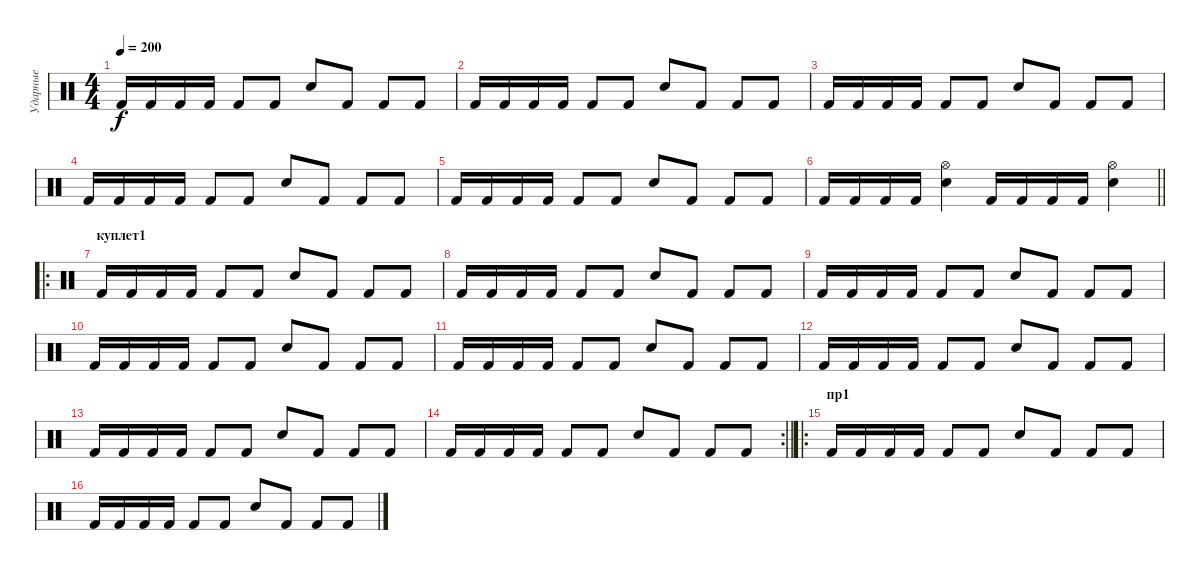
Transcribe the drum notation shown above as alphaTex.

\track ("Ударные" "Ударные") {instrument percussion}
\staff {score}
\articulation defaults
\ts (4 4)
\tempo 200
\clef neutral
\ks c "Kick (hit) 2".16{dy f} "Kick (hit) 2".16 "Kick (hit) 2".16 "Kick (hit) 2".16 "Kick (hit) 2".8 "Kick (hit) 2".8 "Snare (hit) 2".8 "Kick (hit) 2".8 "Kick (hit) 2".8 "Kick (hit) 2".8
|
"Kick (hit) 2".16 "Kick (hit) 2".16 "Kick (hit) 2".16 "Kick (hit) 2".16 "Kick (hit) 2".8 "Kick (hit) 2".8 "Snare (hit) 2".8 "Kick (hit) 2".8 "Kick (hit) 2".8 "Kick (hit) 2".8 |
"Kick (hit) 2".16 "Kick (hit) 2".16 "Kick (hit) 2".16 "Kick (hit) 2".16 "Kick (hit) 2".8 "Kick (hit) 2".8 "Snare (hit) 2".8 "Kick (hit) 2".8 "Kick (hit) 2".8 "Kick (hit) 2".8 |
"Kick (hit) 2".16 "Kick (hit) 2".16 "Kick (hit) 2".16 "Kick (hit) 2".16 "Kick (hit) 2".8 "Kick (hit) 2".8 "Snare (hit) 2".8 "Kick (hit) 2".8 "Kick (hit) 2".8 "Kick (hit) 2".8 |
"Kick (hit) 2".16 "Kick (hit) 2".16 "Kick (hit) 2".16 "Kick (hit) 2".16 "Kick (hit) 2".8 "Kick (hit) 2".8 "Snare (hit) 2".8 "Kick (hit) 2".8 "Kick (hit) 2".8 "Kick (hit) 2".8 |
\barLineRight lightlight "Kick (hit) 2".16 "Kick (hit) 2".16 "Kick (hit) 2".16 "Kick (hit) 2".16
("Hi-Hat (open)" "Snare (hit) 2").4 "Kick (hit) 2".16 "Kick (hit) 2".16 "Kick (hit) 2".16 "Kick (hit) 2".16 ("Hi-Hat (open)" "Snare (hit) 2").4 |
\ro
\section ("" "куплет1")
"Kick (hit) 2".16 "Kick (hit) 2".16 "Kick (hit) 2".16 "Kick (hit) 2".16 "Kick (hit) 2".8 "Kick (hit) 2".8 "Snare (hit) 2".8 "Kick (hit) 2".8 "Kick (hit) 2".8 "Kick (hit) 2".8 |
"Kick (hit) 2".16 "Kick (hit) 2".16 "Kick (hit) 2".16 "Kick (hit) 2".16 "Kick (hit) 2".8 "Kick (hit) 2".8 "Snare (hit) 2".8 "Kick (hit) 2".8 "Kick (hit) 2".8 "Kick (hit) 2".8 |
"Kick (hit) 2".16 "Kick (hit) 2".16 "Kick (hit) 2".16 "Kick (hit) 2".16 "Kick (hit) 2".8 "Kick (hit) 2".8 "Snare (hit) 2".8 "Kick (hit) 2".8 "Kick (hit) 2".8 "Kick (hit) 2".8 |
"Kick (hit) 2".16 "Kick (hit) 2".16 "Kick (hit) 2".16 "Kick (hit) 2".16 "Kick (hit) 2".8 "Kick (hit) 2".8 "Snare (hit) 2".8 "Kick (hit) 2".8 "Kick (hit) 2".8 "Kick (hit) 2".8 |
"Kick (hit) 2".16 "Kick (hit) 2".16 "Kick (hit) 2".16 "Kick (hit) 2".16 "Kick (hit) 2".8 "Kick (hit) 2".8 "Snare (hit) 2".8 "Kick (hit) 2".8 "Kick (hit) 2".8 "Kick (hit) 2".8 |
"Kick (hit) 2".16 "Kick (hit) 2".16 "Kick (hit) 2".16 "Kick (hit) 2".16 "Kick (hit) 2".8 "Kick (hit) 2".8 "Snare (hit) 2".8 "Kick (hit) 2".8 "Kick (hit) 2".8 "Kick (hit) 2".8 |
"Kick (hit) 2".16 "Kick (hit) 2".16 "Kick (hit) 2".16 "Kick (hit) 2".16 "Kick (hit) 2".8 "Kick (hit) 2".8 "Snare (hit) 2".8 "Kick (hit) 2".8 "Kick (hit) 2".8 "Kick (hit) 2".8 |
\rc 2
\barLineRight lightlight "Kick (hit) 2".16 "Kick (hit) 2".16 "Kick (hit) 2".16 "Kick (hit) 2".16 "Kick (hit) 2".8 "Kick (hit) 2".8 "Snare (hit) 2".8 "Kick (hit) 2".8 "Kick (hit) 2".8 "Kick (hit) 2".8
|
\ro
\section ("" "пр1")
"Kick (hit) 2".16 "Kick (hit) 2".16 "Kick (hit) 2".16 "Kick (hit) 2".16 "Kick (hit) 2".8 "Kick (hit) 2".8 "Snare (hit) 2".8 "Kick (hit) 2".8 "Kick (hit) 2".8 "Kick (hit) 2".8 |
"Kick (hit) 2".16 "Kick (hit) 2".16 "Kick (hit) 2".16 "Kick (hit) 2".16 "Kick (hit) 2".8 "Kick (hit) 2".8 "Snare (hit) 2".8 "Kick (hit) 2".8 "Kick (hit) 2".8 "Kick (hit) 2".8
